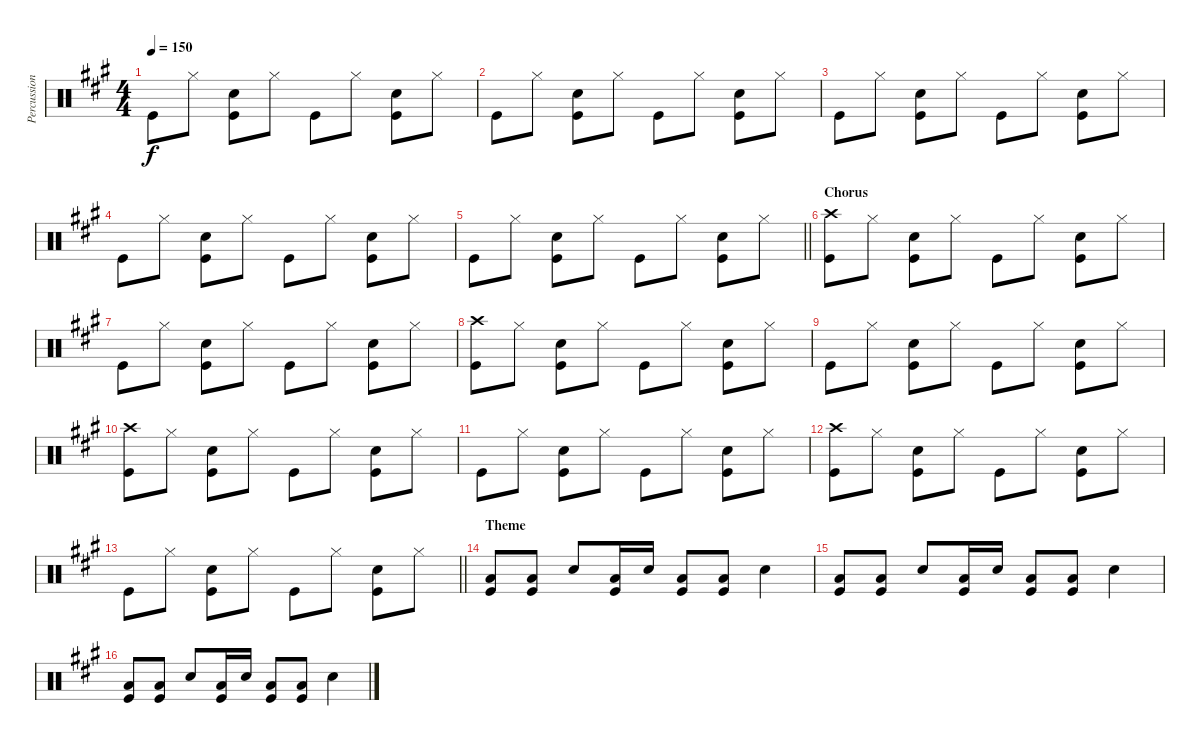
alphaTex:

\track ("Percussion" "Percussion") {instrument percussion}
\staff {score}
\articulation defaults
\ts (4 4)
\tempo 150
\clef neutral
\ks a "Kick (hit)".8{dy f} "Hi-Hat (closed)".8
("Kick (hit)" "Snare (hit) 2").8 "Hi-Hat (closed)".8 "Kick (hit)".8 "Hi-Hat (closed)".8 ("Kick (hit)" "Snare (hit) 2").8 "Hi-Hat (closed)".8 |
"Kick (hit)".8 "Hi-Hat (closed)".8 ("Kick (hit)" "Snare (hit) 2").8 "Hi-Hat (closed)".8 "Kick (hit)".8 "Hi-Hat (closed)".8 ("Kick (hit)" "Snare (hit) 2").8 "Hi-Hat (closed)".8 |
"Kick (hit)".8 "Hi-Hat (closed)".8 ("Kick (hit)" "Snare (hit) 2").8 "Hi-Hat (closed)".8 "Kick (hit)".8 "Hi-Hat (closed)".8 ("Kick (hit)" "Snare (hit) 2").8 "Hi-Hat (closed)".8 |
"Kick (hit)".8 "Hi-Hat (closed)".8 ("Kick (hit)" "Snare (hit) 2").8 "Hi-Hat (closed)".8 "Kick (hit)".8 "Hi-Hat (closed)".8 ("Kick (hit)" "Snare (hit) 2").8 "Hi-Hat (closed)".8 |
\barLineRight lightlight "Kick (hit)".8 "Hi-Hat (closed)".8
("Kick (hit)" "Snare (hit) 2").8 "Hi-Hat (closed)".8 "Kick (hit)".8 "Hi-Hat (closed)".8 ("Kick (hit)" "Snare (hit) 2").8 "Hi-Hat (closed)".8 |
\section ("" "Chorus")
("Kick (hit)" "Crash high (hit)").8 "Hi-Hat (closed)".8 ("Kick (hit)" "Snare (hit) 2").8 "Hi-Hat (closed)".8 "Kick (hit)".8 "Hi-Hat (closed)".8 ("Snare (hit) 2" "Kick (hit)").8 "Hi-Hat (closed)".8 |
"Kick (hit)".8 "Hi-Hat (closed)".8 ("Kick (hit)" "Snare (hit) 2").8 "Hi-Hat (closed)".8 "Kick (hit)".8 "Hi-Hat (closed)".8 ("Kick (hit)" "Snare (hit) 2").8 "Hi-Hat (closed)".8 |
("Kick (hit)" "Crash high (hit)").8 "Hi-Hat (closed)".8 ("Kick (hit)" "Snare (hit) 2").8 "Hi-Hat (closed)".8 "Kick (hit)".8 "Hi-Hat (closed)".8 ("Kick (hit)" "Snare (hit) 2").8 "Hi-Hat (closed)".8 |
"Kick (hit)".8 "Hi-Hat (closed)".8 ("Kick (hit)" "Snare (hit) 2").8 "Hi-Hat (closed)".8 "Kick (hit)".8 "Hi-Hat (closed)".8 ("Kick (hit)" "Snare (hit) 2").8 "Hi-Hat (closed)".8 |
("Kick (hit)" "Crash high (hit)").8 "Hi-Hat (closed)".8 ("Kick (hit)" "Snare (hit) 2").8 "Hi-Hat (closed)".8 "Kick (hit)".8 "Hi-Hat (closed)".8 ("Kick (hit)" "Snare (hit) 2").8 "Hi-Hat (closed)".8 |
"Kick (hit)".8 "Hi-Hat (closed)".8 ("Kick (hit)" "Snare (hit) 2").8 "Hi-Hat (closed)".8 "Kick (hit)".8 "Hi-Hat (closed)".8 ("Kick (hit)" "Snare (hit) 2").8 "Hi-Hat (closed)".8 |
("Kick (hit)" "Crash high (hit)").8 "Hi-Hat (closed)".8 ("Kick (hit)" "Snare (hit) 2").8 "Hi-Hat (closed)".8 "Kick (hit)".8 "Hi-Hat (closed)".8 ("Kick (hit)" "Snare (hit) 2").8 "Hi-Hat (closed)".8 |
\barLineRight lightlight "Kick (hit)".8 "Hi-Hat (closed)".8
("Kick (hit)" "Snare (hit) 2").8 "Hi-Hat (closed)".8 "Kick (hit)".8 "Hi-Hat (closed)".8 ("Kick (hit)" "Snare (hit) 2").8 "Hi-Hat (closed)".8 |
\section ("" "Theme")
("Kick (hit)" "Low Tom (hit)").8 ("Kick (hit)" "Low Tom (hit)").8 "Snare (hit) 2".8 ("Kick (hit)" "Low Tom (hit)").16 "Snare (hit) 2".16 ("Kick (hit)" "Low Tom (hit)").8 ("Kick (hit)" "Low Tom (hit)").8 "Snare (hit) 2".4 |
("Kick (hit)" "Low Tom (hit)").8 ("Kick (hit)" "Low Tom (hit)").8 "Snare (hit) 2".8 ("Kick (hit)" "Low Tom (hit)").16 "Snare (hit) 2".16 ("Kick (hit)" "Low Tom (hit)").8 ("Kick (hit)" "Low Tom (hit)").8 "Snare (hit) 2".4 |
("Kick (hit)" "Low Tom (hit)").8 ("Kick (hit)" "Low Tom (hit)").8 "Snare (hit) 2".8 ("Kick (hit)" "Low Tom (hit)").16 "Snare (hit) 2".16 ("Kick (hit)" "Low Tom (hit)").8 ("Kick (hit)" "Low Tom (hit)").8 "Snare (hit) 2".4
